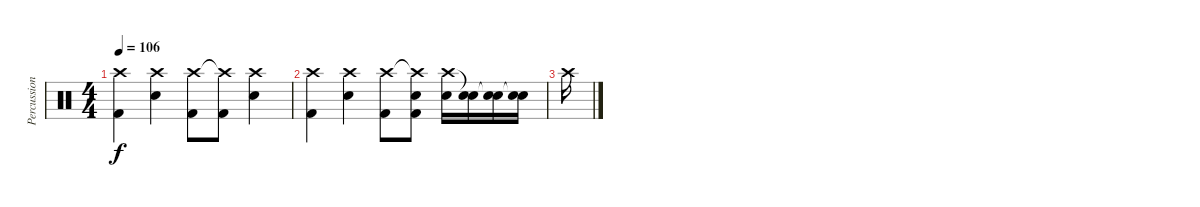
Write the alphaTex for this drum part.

\track ("Percussion" "Percussion") {instrument percussion}
\staff {score}
\articulation defaults
\ts (4 4)
\tempo 106
\clef neutral
\ks c
("Crash high (hit)" "Kick (hit) 2").4{dy f} ("Crash high (hit)" "Electric Snare (hit)").4 ("Crash high (hit)" "Kick (hit) 2").8 ("Crash high (hit)"{t} "Kick (hit) 2").8 ("Crash high (hit)" "Electric Snare (hit)").4 |
("Crash high (hit)" "Kick (hit) 2").4 ("Crash high (hit)" "Electric Snare (hit)").4 ("Crash high (hit)" "Kick (hit) 2").8 ("Crash high (hit)"{t} "Electric Snare (hit)" "Kick (hit) 2").8 ("Crash high (hit)" "Electric Snare (hit)").16 ("Snare (hit)"{t} "Electric Snare (hit)").16 ("Snare (hit)"{t} "Electric Snare (hit)").16 ("Snare (hit)"{t} "Electric Snare (hit)").16 |
"Crash high (hit)".16
